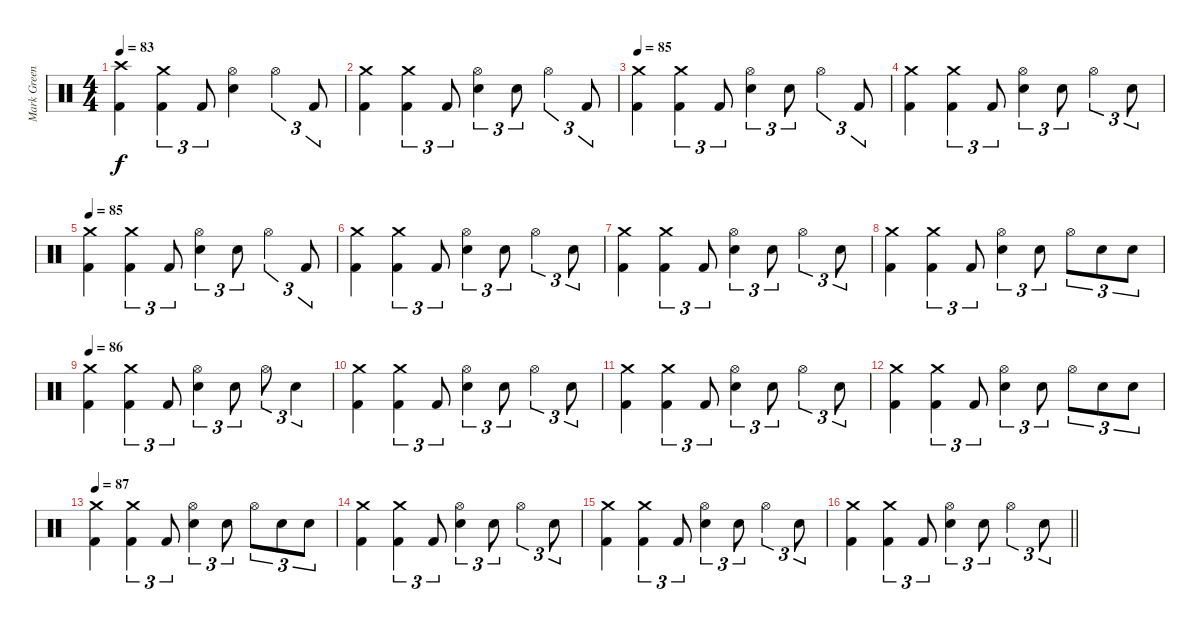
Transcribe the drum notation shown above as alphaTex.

\track ("Mark Greening" "Mark Green") {instrument percussion}
\staff {score}
\articulation defaults
\ts (4 4)
\section ("" "")
\tempo 83
\clef neutral
\ks c
("Crash high (hit)" "Kick (hit) 2").4{dy f} ("Crash medium (hit)" "Kick (hit) 2").4{tu (3 2)} "Kick (hit) 2".8{tu (3 2)} ("Hi-Hat (open)" "Electric Snare (hit)").4 "Hi-Hat (open)".4{tu (3 2)} "Kick (hit) 2".8{tu (3 2)} |
("Crash medium (hit)" "Kick (hit) 2").4 ("Crash medium (hit)" "Kick (hit) 2").4{tu (3 2)} "Kick (hit) 2".8{tu (3 2)} ("Hi-Hat (open)" "Electric Snare (hit)").4{tu (3 2)} "Electric Snare (hit)".8{tu (3 2)} "Hi-Hat (open)".4{tu (3 2)} "Kick (hit) 2".8{tu (3 2)} |
\tempo 85
("Crash medium (hit)" "Kick (hit) 2").4 ("Crash medium (hit)" "Kick (hit) 2").4{tu (3 2)} "Kick (hit) 2".8{tu (3 2)} ("Hi-Hat (open)" "Electric Snare (hit)").4{tu (3 2)} "Electric Snare (hit)".8{tu (3 2)} "Hi-Hat (open)".4{tu (3 2)} "Kick (hit) 2".8{tu (3 2)} |
("Crash medium (hit)" "Kick (hit) 2").4 ("Crash medium (hit)" "Kick (hit) 2").4{tu (3 2)} "Kick (hit) 2".8{tu (3 2)} ("Hi-Hat (open)" "Electric Snare (hit)").4{tu (3 2)} "Electric Snare (hit)".8{tu (3 2)} "Hi-Hat (open)".4{tu (3 2)} "Electric Snare (hit)".8{tu (3 2)} |
\tempo 85
("Crash medium (hit)" "Kick (hit) 2").4 ("Crash medium (hit)" "Kick (hit) 2").4{tu (3 2)} "Kick (hit) 2".8{tu (3 2)} ("Hi-Hat (open)" "Electric Snare (hit)").4{tu (3 2)} "Electric Snare (hit)".8{tu (3 2)} "Hi-Hat (open)".4{tu (3 2)} "Kick (hit) 2".8{tu (3 2)} |
("Crash medium (hit)" "Kick (hit) 2").4 ("Crash medium (hit)" "Kick (hit) 2").4{tu (3 2)} "Kick (hit) 2".8{tu (3 2)} ("Hi-Hat (open)" "Electric Snare (hit)").4{tu (3 2)} "Electric Snare (hit)".8{tu (3 2)} "Hi-Hat (open)".4{tu (3 2)} "Electric Snare (hit)".8{tu (3 2)} |
("Crash medium (hit)" "Kick (hit) 2").4 ("Crash medium (hit)" "Kick (hit) 2").4{tu (3 2)} "Kick (hit) 2".8{tu (3 2)} ("Hi-Hat (open)" "Electric Snare (hit)").4{tu (3 2)} "Electric Snare (hit)".8{tu (3 2)} "Hi-Hat (open)".4{tu (3 2)} "Electric Snare (hit)".8{tu (3 2)} |
("Crash medium (hit)" "Kick (hit) 2").4 ("Crash medium (hit)" "Kick (hit) 2").4{tu (3 2)} "Kick (hit) 2".8{tu (3 2)} ("Hi-Hat (open)" "Electric Snare (hit)").4{tu (3 2)} "Electric Snare (hit)".8{tu (3 2)} "Hi-Hat (open)".8{tu (3 2)} "Electric Snare (hit)".8{tu (3 2)} "Electric Snare (hit)".8{tu (3 2)} |
\tempo 86
("Crash medium (hit)" "Kick (hit) 2").4 ("Crash medium (hit)" "Kick (hit) 2").4{tu (3 2)} "Kick (hit) 2".8{tu (3 2)} ("Hi-Hat (open)" "Electric Snare (hit)").4{tu (3 2)} "Electric Snare (hit)".8{tu (3 2)} "Hi-Hat (open)".8{tu (3 2)} "Electric Snare (hit)".4{tu (3 2)} |
("Crash medium (hit)" "Kick (hit) 2").4 ("Crash medium (hit)" "Kick (hit) 2").4{tu (3 2)} "Kick (hit) 2".8{tu (3 2)} ("Hi-Hat (open)" "Electric Snare (hit)").4{tu (3 2)} "Electric Snare (hit)".8{tu (3 2)} "Hi-Hat (open)".4{tu (3 2)} "Electric Snare (hit)".8{tu (3 2)} |
("Crash medium (hit)" "Kick (hit) 2").4 ("Crash medium (hit)" "Kick (hit) 2").4{tu (3 2)} "Kick (hit) 2".8{tu (3 2)} ("Hi-Hat (open)" "Electric Snare (hit)").4{tu (3 2)} "Electric Snare (hit)".8{tu (3 2)} "Hi-Hat (open)".4{tu (3 2)} "Electric Snare (hit)".8{tu (3 2)} |
("Crash medium (hit)" "Kick (hit) 2").4 ("Crash medium (hit)" "Kick (hit) 2").4{tu (3 2)} "Kick (hit) 2".8{tu (3 2)} ("Hi-Hat (open)" "Electric Snare (hit)").4{tu (3 2)} "Electric Snare (hit)".8{tu (3 2)} "Hi-Hat (open)".8{tu (3 2)} "Electric Snare (hit)".8{tu (3 2)} "Electric Snare (hit)".8{tu (3 2)} |
\tempo 87
("Crash medium (hit)" "Kick (hit) 2").4 ("Crash medium (hit)" "Kick (hit) 2").4{tu (3 2)} "Kick (hit) 2".8{tu (3 2)} ("Hi-Hat (open)" "Electric Snare (hit)").4{tu (3 2)} "Electric Snare (hit)".8{tu (3 2)} "Hi-Hat (open)".8{tu (3 2)} "Electric Snare (hit)".8{tu (3 2)} "Electric Snare (hit)".8{tu (3 2)} |
("Crash medium (hit)" "Kick (hit) 2").4 ("Crash medium (hit)" "Kick (hit) 2").4{tu (3 2)} "Kick (hit) 2".8{tu (3 2)} ("Hi-Hat (open)" "Electric Snare (hit)").4{tu (3 2)} "Electric Snare (hit)".8{tu (3 2)} "Hi-Hat (open)".4{tu (3 2)} "Electric Snare (hit)".8{tu (3 2)} |
("Crash medium (hit)" "Kick (hit) 2").4 ("Crash medium (hit)" "Kick (hit) 2").4{tu (3 2)} "Kick (hit) 2".8{tu (3 2)} ("Hi-Hat (open)" "Electric Snare (hit)").4{tu (3 2)} "Electric Snare (hit)".8{tu (3 2)} "Hi-Hat (open)".4{tu (3 2)} "Electric Snare (hit)".8{tu (3 2)} |
\barLineRight lightlight
("Crash medium (hit)" "Kick (hit) 2").4 ("Crash medium (hit)" "Kick (hit) 2").4{tu (3 2)} "Kick (hit) 2".8{tu (3 2)} ("Hi-Hat (open)" "Electric Snare (hit)").4{tu (3 2)} "Electric Snare (hit)".8{tu (3 2)} "Hi-Hat (open)".4{tu (3 2)} "Electric Snare (hit)".8{tu (3 2)}
